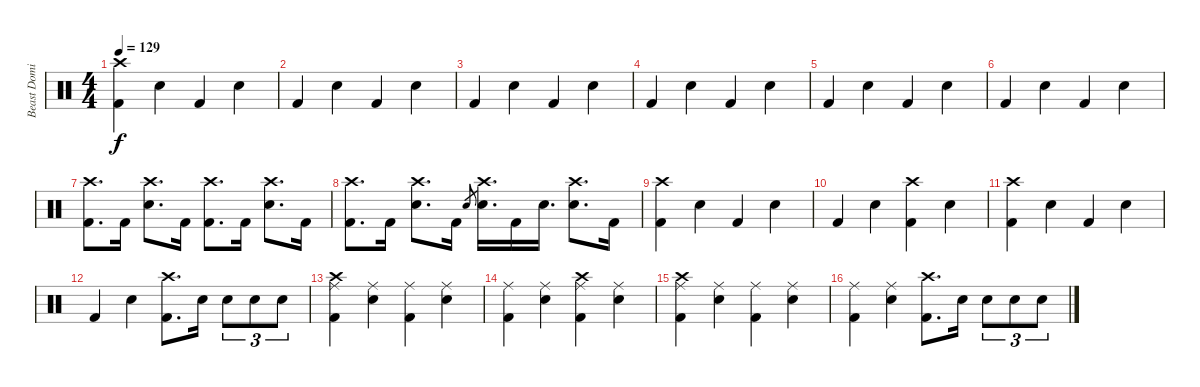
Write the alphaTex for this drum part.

\track ("Beast Dominator" "Beast Domi") {instrument percussion}
\staff
\articulation defaults
\ts (4 4)
\tempo 129
\clef neutral
\ks c
("Crash high (hit)" "Kick (hit) 2").4{dy f} "Snare (hit) 2".4 "Kick (hit) 2".4 "Snare (hit) 2".4 |
"Kick (hit) 2".4 "Snare (hit) 2".4 "Kick (hit) 2".4 "Electric Snare (hit)".4 |
"Kick (hit) 2".4 "Snare (hit) 2".4 "Kick (hit) 2".4 "Snare (hit) 2".4 |
"Kick (hit) 2".4 "Snare (hit) 2".4 "Kick (hit) 2".4 "Electric Snare (hit)".4 |
"Kick (hit) 2".4 "Snare (hit) 2".4 "Kick (hit) 2".4 "Snare (hit) 2".4 |
"Kick (hit) 2".4 "Snare (hit) 2".4 "Kick (hit) 2".4 "Electric Snare (hit)".4 |
("Crash high (hit)" "Kick (hit) 2").8{d} "Kick (hit) 2".16 ("Crash high (hit)" "Snare (hit) 2").8{d} "Kick (hit) 2".16 ("Crash high (hit)" "Kick (hit) 2").8{d} "Kick (hit) 2".16 ("Crash high (hit)" "Snare (hit) 2").8{d} "Kick (hit) 2".16 |
("Crash high (hit)" "Kick (hit) 2").8{d} "Kick (hit) 2".16 ("Crash high (hit)" "Snare (hit) 2").8{d} "Kick (hit) 2".16 "Snare (hit) 2".8{gr} ("Crash high (hit)" "Snare (hit) 2").16{d} "Kick (hit) 2".16 "Snare (hit) 2".16{d} ("Crash high (hit)" "Snare (hit) 2").8{d} "Kick (hit) 2".16 |
("Crash high (hit)" "Kick (hit) 2").4 "Snare (hit) 2".4 "Kick (hit) 2".4 "Snare (hit) 2".4 |
"Kick (hit) 2".4 "Snare (hit) 2".4 ("Crash high (hit)" "Kick (hit) 2").4 "Electric Snare (hit)".4 |
("Crash high (hit)" "Kick (hit) 2").4 "Snare (hit) 2".4 "Kick (hit) 2".4 "Snare (hit) 2".4 |
"Kick (hit) 2".4 "Snare (hit) 2".4 ("Crash high (hit)" "Kick (hit) 2").8{d} "Electric Snare (hit)".16 "Electric Snare (hit)".8{tu (3 2)} "Electric Snare (hit)".8{tu (3 2)} "Electric Snare (hit)".8{tu (3 2)} |
("Crash high (hit)" "Ride (middle)" "Kick (hit) 2").4 ("Ride (middle)" "Snare (hit) 2").4 ("Ride (middle)" "Kick (hit) 2").4 ("Ride (middle)" "Snare (hit) 2").4 |
("Ride (middle)" "Kick (hit) 2").4 ("Ride (middle)" "Snare (hit) 2").4 ("Crash high (hit)" "Ride (middle)" "Kick (hit) 2").4 ("Ride (middle)" "Electric Snare (hit)").4 |
("Crash high (hit)" "Ride (middle)" "Kick (hit) 2").4 ("Ride (middle)" "Snare (hit) 2").4 ("Ride (middle)" "Kick (hit) 2").4 ("Ride (middle)" "Snare (hit) 2").4 |
("Ride (middle)" "Kick (hit) 2").4 ("Ride (middle)" "Snare (hit) 2").4 ("Crash high (hit)" "Kick (hit) 2").8{d} "Electric Snare (hit)".16 "Electric Snare (hit)".8{tu (3 2)} "Electric Snare (hit)".8{tu (3 2)} "Electric Snare (hit)".8{tu (3 2)}
